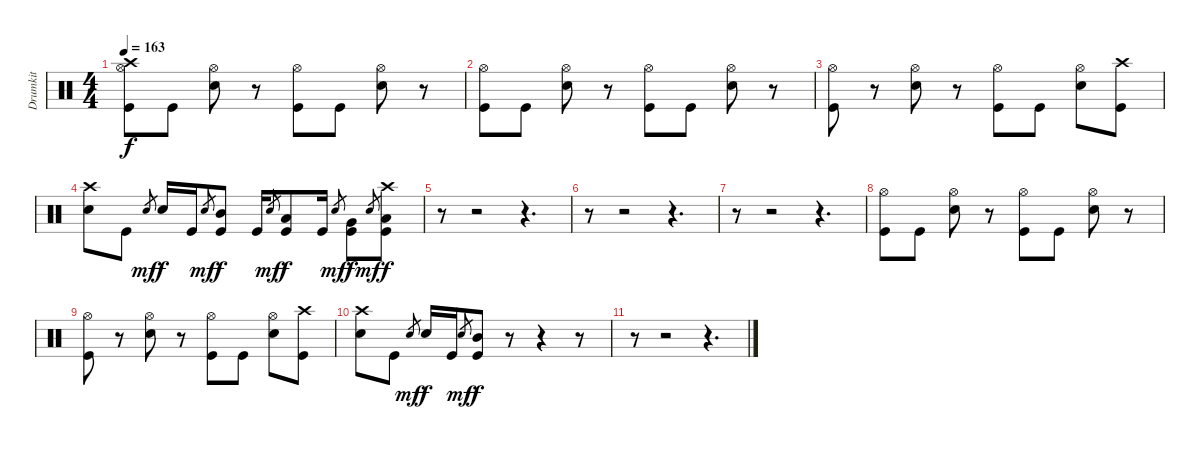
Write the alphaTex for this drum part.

\track ("Drumkit" "Drumkit") {instrument percussion}
\staff {score}
\articulation defaults
\ts (4 4)
\tempo 163
\clef neutral
\ks c
("Crash high (hit)" "Kick (hit)" "Hi-Hat (open)").8{dy f} "Kick (hit)".8 ("Snare (hit) 2" "Hi-Hat (open)").8 r.8 ("Kick (hit)" "Hi-Hat (open)").8 "Kick (hit)".8 ("Snare (hit) 2" "Hi-Hat (open)").8 r.8 |
("Kick (hit)" "Hi-Hat (open)").8 "Kick (hit)".8 ("Snare (hit) 2" "Hi-Hat (open)").8 r.8 ("Kick (hit)" "Hi-Hat (open)").8 "Kick (hit)".8 ("Snare (hit) 2" "Hi-Hat (open)").8 r.8 |
("Kick (hit)" "Hi-Hat (open)").8 r.8 ("Snare (hit) 2" "Hi-Hat (open)").8 r.8 ("Kick (hit)" "Hi-Hat (open)").8 "Kick (hit)".8 ("Snare (hit) 2" "Hi-Hat (open)").8 ("Kick (hit)" "Crash high (hit)").8 |
("Crash high (hit)" "Snare (hit) 2").8 "Kick (hit)".8 "Snare (hit)".8{gr dy mf} "Snare (hit) 2".16{dy f} "Kick (hit)".16 "Snare (hit)".8{gr dy mf} ("Kick (hit)" "Mid Tom (hit)").8{dy f} "Kick (hit)".16 "Snare (hit)".8{gr dy mf} ("Kick (hit)" "Low Tom (hit)").8{dy f} "Kick (hit)".16 "Snare (hit)".8{gr dy mf} ("Kick (hit)" "Very Low Tom (hit)").8{dy f} "Snare (hit)".8{gr dy mf} ("Crash high (hit)" "Kick (hit)" "Low Floor Tom (hit)").8{dy f} |
r.8 r.2 r.4{d} |
r.8 r.2 r.4{d} |
r.8 r.2 r.4{d} |
("Kick (hit)" "Hi-Hat (open)").8 "Kick (hit)".8 ("Snare (hit) 2" "Hi-Hat (open)").8 r.8 ("Kick (hit)" "Hi-Hat (open)").8 "Kick (hit)".8 ("Snare (hit) 2" "Hi-Hat (open)").8 r.8 |
("Kick (hit)" "Hi-Hat (open)").8 r.8 ("Snare (hit) 2" "Hi-Hat (open)").8 r.8 ("Kick (hit)" "Hi-Hat (open)").8 "Kick (hit)".8 ("Snare (hit) 2" "Hi-Hat (open)").8 ("Kick (hit)" "Crash high (hit)").8 |
("Crash high (hit)" "Snare (hit) 2").8 "Kick (hit)".8 "Snare (hit)".8{gr dy mf} "Snare (hit) 2".16{dy f} "Kick (hit)".16 "Snare (hit)".8{gr dy mf} ("Kick (hit)" "Mid Tom (hit)").8{dy f} r.8 r.4 r.8 |
r.8 r.2 r.4{d}
